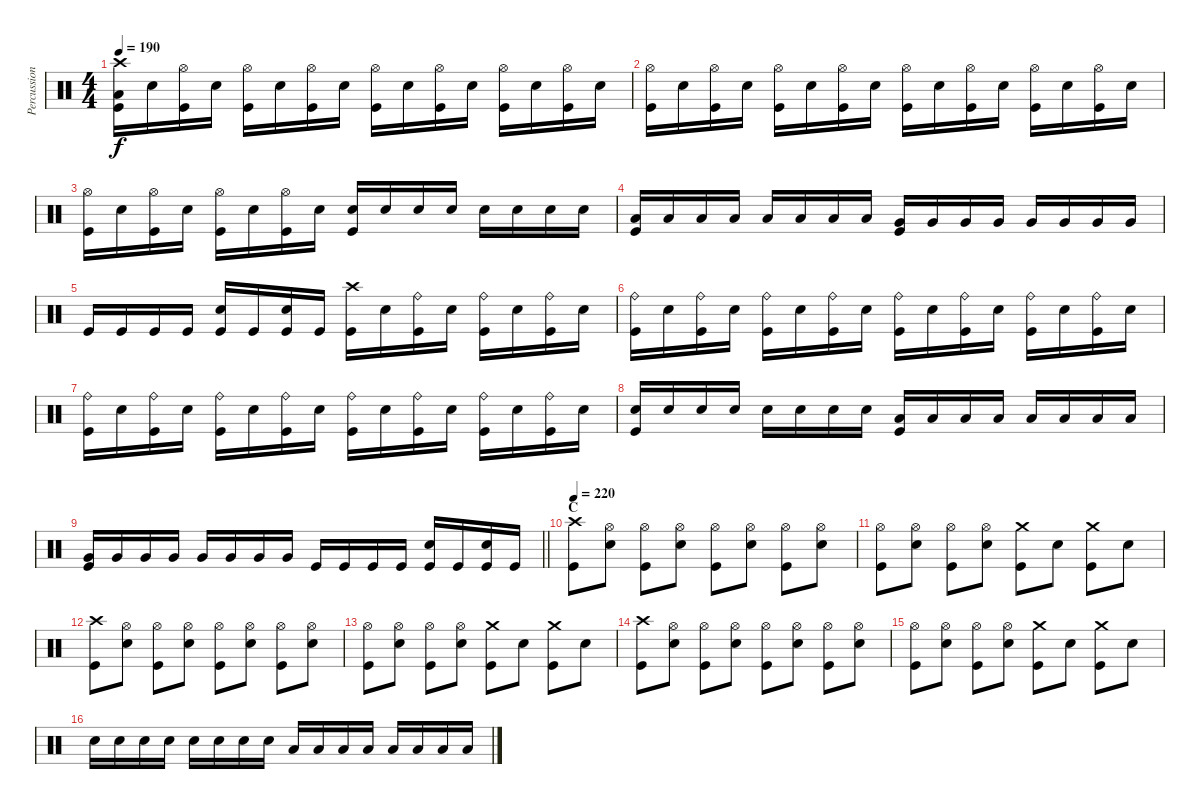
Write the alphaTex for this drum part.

\track ("Percussion" "Percussion") {instrument percussion}
\staff {score}
\articulation defaults
\ts (4 4)
\tempo 190
\clef neutral
\ks c
("Crash high (hit)" "Low Floor Tom (hit)" "Kick (hit)").16{dy f} "Snare (hit) 2".16 ("Hi-Hat (open)" "Kick (hit)").16 "Snare (hit) 2".16 ("Hi-Hat (open)" "Kick (hit)").16 "Snare (hit) 2".16 ("Hi-Hat (open)" "Kick (hit)").16 "Snare (hit) 2".16 ("Hi-Hat (open)" "Kick (hit)").16 "Snare (hit) 2".16 ("Hi-Hat (open)" "Kick (hit)").16 "Snare (hit) 2".16 ("Hi-Hat (open)" "Kick (hit)").16 "Snare (hit) 2".16 ("Hi-Hat (open)" "Kick (hit)").16 "Snare (hit) 2".16 |
("Hi-Hat (open)" "Kick (hit)").16 "Snare (hit) 2".16 ("Hi-Hat (open)" "Kick (hit)").16 "Snare (hit) 2".16 ("Hi-Hat (open)" "Kick (hit)").16 "Snare (hit) 2".16 ("Hi-Hat (open)" "Kick (hit)").16 "Snare (hit) 2".16 ("Hi-Hat (open)" "Kick (hit)").16 "Snare (hit) 2".16 ("Hi-Hat (open)" "Kick (hit)").16 "Snare (hit) 2".16 ("Hi-Hat (open)" "Kick (hit)").16 "Snare (hit) 2".16 ("Hi-Hat (open)" "Kick (hit)").16 "Snare (hit) 2".16 |
("Hi-Hat (open)" "Kick (hit)").16 "Snare (hit) 2".16 ("Hi-Hat (open)" "Kick (hit)").16 "Snare (hit) 2".16 ("Hi-Hat (open)" "Kick (hit)").16 "Snare (hit) 2".16 ("Hi-Hat (open)" "Kick (hit)").16 "Snare (hit) 2".16 ("Snare (hit) 2" "Kick (hit)").16 "Snare (hit) 2".16 "Snare (hit) 2".16 "Snare (hit) 2".16 "Snare (hit) 2".16 "Snare (hit) 2".16 "Snare (hit) 2".16 "Snare (hit) 2".16 |
("Low Tom (hit)" "Kick (hit)").16 "Low Tom (hit)".16 "Low Tom (hit)".16 "Low Tom (hit)".16 "Low Tom (hit)".16 "Low Tom (hit)".16 "Low Tom (hit)".16 "Low Tom (hit)".16 ("Very Low Tom (hit)" "Kick (hit)").16 "Very Low Tom (hit)".16 "Very Low Tom (hit)".16 "Very Low Tom (hit)".16 "Very Low Tom (hit)".16 "Very Low Tom (hit)".16 "Very Low Tom (hit)".16 "Very Low Tom (hit)".16 |
"Kick (hit)".16 "Kick (hit)".16 "Kick (hit)".16 "Kick (hit)".16 ("Snare (hit) 2" "Kick (hit)").16 "Kick (hit)".16 ("Snare (hit) 2" "Kick (hit)").16 "Kick (hit)".16 ("Crash high (hit)" "Kick (hit)").16 "Snare (hit) 2".16 ("Ride (bell)" "Kick (hit)").16 "Snare (hit) 2".16 ("Ride (bell)" "Kick (hit)").16 "Snare (hit) 2".16 ("Ride (bell)" "Kick (hit)").16 "Snare (hit) 2".16 |
("Ride (bell)" "Kick (hit)").16 "Snare (hit) 2".16 ("Ride (bell)" "Kick (hit)").16 "Snare (hit) 2".16 ("Ride (bell)" "Kick (hit)").16 "Snare (hit) 2".16 ("Ride (bell)" "Kick (hit)").16 "Snare (hit) 2".16 ("Ride (bell)" "Kick (hit)").16 "Snare (hit) 2".16 ("Ride (bell)" "Kick (hit)").16 "Snare (hit) 2".16 ("Ride (bell)" "Kick (hit)").16 "Snare (hit) 2".16 ("Ride (bell)" "Kick (hit)").16 "Snare (hit) 2".16 |
("Ride (bell)" "Kick (hit)").16 "Snare (hit) 2".16 ("Ride (bell)" "Kick (hit)").16 "Snare (hit) 2".16 ("Ride (bell)" "Kick (hit)").16 "Snare (hit) 2".16 ("Ride (bell)" "Kick (hit)").16 "Snare (hit) 2".16 ("Ride (bell)" "Kick (hit)").16 "Snare (hit) 2".16 ("Ride (bell)" "Kick (hit)").16 "Snare (hit) 2".16 ("Ride (bell)" "Kick (hit)").16 "Snare (hit) 2".16 ("Ride (bell)" "Kick (hit)").16 "Snare (hit) 2".16 |
("Snare (hit) 2" "Kick (hit)").16 "Snare (hit) 2".16 "Snare (hit) 2".16 "Snare (hit) 2".16 "Snare (hit) 2".16 "Snare (hit) 2".16 "Snare (hit) 2".16 "Snare (hit) 2".16 ("Low Tom (hit)" "Kick (hit)").16 "Low Tom (hit)".16 "Low Tom (hit)".16 "Low Tom (hit)".16 "Low Tom (hit)".16 "Low Tom (hit)".16 "Low Tom (hit)".16 "Low Tom (hit)".16 |
\barLineRight lightlight
("Very Low Tom (hit)" "Kick (hit)").16 "Very Low Tom (hit)".16 "Very Low Tom (hit)".16 "Very Low Tom (hit)".16 "Very Low Tom (hit)".16 "Very Low Tom (hit)".16 "Very Low Tom (hit)".16 "Very Low Tom (hit)".16 "Kick (hit)".16 "Kick (hit)".16 "Kick (hit)".16 "Kick (hit)".16 ("Snare (hit) 2" "Kick (hit)").16 "Kick (hit)".16 ("Snare (hit) 2" "Kick (hit)").16 "Kick (hit)".16 |
\section ("" "C")
\tempo 220
("Crash high (hit)" "Kick (hit)").8 ("Hi-Hat (open)" "Snare (hit) 2").8 ("Hi-Hat (open)" "Kick (hit)").8 ("Hi-Hat (open)" "Snare (hit) 2").8 ("Hi-Hat (open)" "Kick (hit)").8 ("Hi-Hat (open)" "Snare (hit) 2").8 ("Hi-Hat (open)" "Kick (hit)").8 ("Hi-Hat (open)" "Snare (hit) 2").8 |
("Hi-Hat (open)" "Kick (hit)").8 ("Hi-Hat (open)" "Snare (hit) 2").8 ("Hi-Hat (open)" "Kick (hit)").8 ("Hi-Hat (open)" "Snare (hit) 2").8 ("Crash medium (hit)" "Kick (hit)").8 "Snare (hit) 2".8 ("Crash medium (hit)" "Kick (hit)").8 "Snare (hit) 2".8 |
("Crash high (hit)" "Kick (hit)").8 ("Hi-Hat (open)" "Snare (hit) 2").8 ("Hi-Hat (open)" "Kick (hit)").8 ("Hi-Hat (open)" "Snare (hit) 2").8 ("Hi-Hat (open)" "Kick (hit)").8 ("Hi-Hat (open)" "Snare (hit) 2").8 ("Hi-Hat (open)" "Kick (hit)").8 ("Hi-Hat (open)" "Snare (hit) 2").8 |
("Hi-Hat (open)" "Kick (hit)").8 ("Hi-Hat (open)" "Snare (hit) 2").8 ("Hi-Hat (open)" "Kick (hit)").8 ("Hi-Hat (open)" "Snare (hit) 2").8 ("Crash medium (hit)" "Kick (hit)").8 "Snare (hit) 2".8 ("Crash medium (hit)" "Kick (hit)").8 "Snare (hit) 2".8 |
("Crash high (hit)" "Kick (hit)").8 ("Hi-Hat (open)" "Snare (hit) 2").8 ("Hi-Hat (open)" "Kick (hit)").8 ("Hi-Hat (open)" "Snare (hit) 2").8 ("Hi-Hat (open)" "Kick (hit)").8 ("Hi-Hat (open)" "Snare (hit) 2").8 ("Hi-Hat (open)" "Kick (hit)").8 ("Hi-Hat (open)" "Snare (hit) 2").8 |
("Hi-Hat (open)" "Kick (hit)").8 ("Hi-Hat (open)" "Snare (hit) 2").8 ("Hi-Hat (open)" "Kick (hit)").8 ("Hi-Hat (open)" "Snare (hit) 2").8 ("Crash medium (hit)" "Kick (hit)").8 "Snare (hit) 2".8 ("Crash medium (hit)" "Kick (hit)").8 "Snare (hit) 2".8 |
"Snare (hit) 2".16 "Snare (hit) 2".16 "Snare (hit) 2".16 "Snare (hit) 2".16 "Snare (hit) 2".16 "Snare (hit) 2".16 "Snare (hit) 2".16 "Snare (hit) 2".16 "Low Tom (hit)".16 "Low Tom (hit)".16 "Low Tom (hit)".16 "Low Tom (hit)".16 "Low Tom (hit)".16 "Low Tom (hit)".16 "Low Tom (hit)".16 "Low Tom (hit)".16
